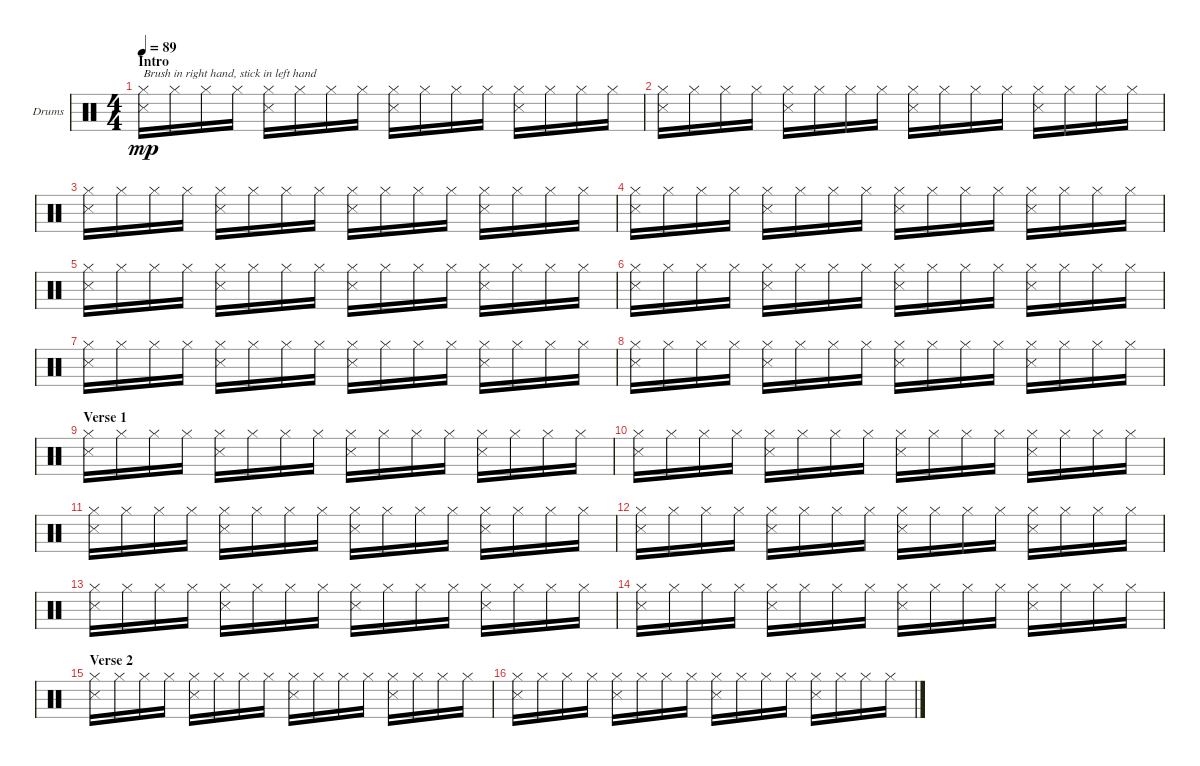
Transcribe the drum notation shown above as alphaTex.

\bracketExtendMode groupsimilarinstruments
\firstSystemTrackNameOrientation horizontal
\otherSystemsTrackNameOrientation horizontal
\track ("Drumkit" "Drums") {instrument percussion}
\staff {score}
\articulation defaults
\ts (4 4)
\section ("" "Intro")
\tempo 89
\clef neutral
\ks c
("Hi-Hat (closed)" "Snare (side stick) 3").16{txt "Brush in right hand, stick in left hand" dy mp} "Hi-Hat (closed)".16 "Hi-Hat (closed)".16 "Hi-Hat (closed)".16 ("Hi-Hat (closed)" "Snare (side stick) 3").16 "Hi-Hat (closed)".16 "Hi-Hat (closed)".16 "Hi-Hat (closed)".16 ("Hi-Hat (closed)" "Snare (side stick) 3").16 "Hi-Hat (closed)".16 "Hi-Hat (closed)".16 "Hi-Hat (closed)".16 ("Hi-Hat (closed)" "Snare (side stick) 3").16 "Hi-Hat (closed)".16 "Hi-Hat (closed)".16 "Hi-Hat (closed)".16 |
("Hi-Hat (closed)" "Snare (side stick) 3").16 "Hi-Hat (closed)".16 "Hi-Hat (closed)".16 "Hi-Hat (closed)".16 ("Hi-Hat (closed)" "Snare (side stick) 3").16 "Hi-Hat (closed)".16 "Hi-Hat (closed)".16 "Hi-Hat (closed)".16 ("Hi-Hat (closed)" "Snare (side stick) 3").16 "Hi-Hat (closed)".16 "Hi-Hat (closed)".16 "Hi-Hat (closed)".16 ("Hi-Hat (closed)" "Snare (side stick) 3").16 "Hi-Hat (closed)".16 "Hi-Hat (closed)".16 "Hi-Hat (closed)".16 |
("Hi-Hat (closed)" "Snare (side stick) 3").16 "Hi-Hat (closed)".16 "Hi-Hat (closed)".16 "Hi-Hat (closed)".16 ("Hi-Hat (closed)" "Snare (side stick) 3").16 "Hi-Hat (closed)".16 "Hi-Hat (closed)".16 "Hi-Hat (closed)".16 ("Hi-Hat (closed)" "Snare (side stick) 3").16 "Hi-Hat (closed)".16 "Hi-Hat (closed)".16 "Hi-Hat (closed)".16 ("Hi-Hat (closed)" "Snare (side stick) 3").16 "Hi-Hat (closed)".16 "Hi-Hat (closed)".16 "Hi-Hat (closed)".16 |
("Hi-Hat (closed)" "Snare (side stick) 3").16 "Hi-Hat (closed)".16 "Hi-Hat (closed)".16 "Hi-Hat (closed)".16 ("Hi-Hat (closed)" "Snare (side stick) 3").16 "Hi-Hat (closed)".16 "Hi-Hat (closed)".16 "Hi-Hat (closed)".16 ("Hi-Hat (closed)" "Snare (side stick) 3").16 "Hi-Hat (closed)".16 "Hi-Hat (closed)".16 "Hi-Hat (closed)".16 ("Hi-Hat (closed)" "Snare (side stick) 3").16 "Hi-Hat (closed)".16 "Hi-Hat (closed)".16 "Hi-Hat (closed)".16 |
("Hi-Hat (closed)" "Snare (side stick) 3").16 "Hi-Hat (closed)".16 "Hi-Hat (closed)".16 "Hi-Hat (closed)".16 ("Hi-Hat (closed)" "Snare (side stick) 3").16 "Hi-Hat (closed)".16 "Hi-Hat (closed)".16 "Hi-Hat (closed)".16 ("Hi-Hat (closed)" "Snare (side stick) 3").16 "Hi-Hat (closed)".16 "Hi-Hat (closed)".16 "Hi-Hat (closed)".16 ("Hi-Hat (closed)" "Snare (side stick) 3").16 "Hi-Hat (closed)".16 "Hi-Hat (closed)".16 "Hi-Hat (closed)".16 |
("Hi-Hat (closed)" "Snare (side stick) 3").16 "Hi-Hat (closed)".16 "Hi-Hat (closed)".16 "Hi-Hat (closed)".16 ("Hi-Hat (closed)" "Snare (side stick) 3").16 "Hi-Hat (closed)".16 "Hi-Hat (closed)".16 "Hi-Hat (closed)".16 ("Hi-Hat (closed)" "Snare (side stick) 3").16 "Hi-Hat (closed)".16 "Hi-Hat (closed)".16 "Hi-Hat (closed)".16 ("Hi-Hat (closed)" "Snare (side stick) 3").16 "Hi-Hat (closed)".16 "Hi-Hat (closed)".16 "Hi-Hat (closed)".16 |
("Hi-Hat (closed)" "Snare (side stick) 3").16 "Hi-Hat (closed)".16 "Hi-Hat (closed)".16 "Hi-Hat (closed)".16 ("Hi-Hat (closed)" "Snare (side stick) 3").16 "Hi-Hat (closed)".16 "Hi-Hat (closed)".16 "Hi-Hat (closed)".16 ("Hi-Hat (closed)" "Snare (side stick) 3").16 "Hi-Hat (closed)".16 "Hi-Hat (closed)".16 "Hi-Hat (closed)".16 ("Hi-Hat (closed)" "Snare (side stick) 3").16 "Hi-Hat (closed)".16 "Hi-Hat (closed)".16 "Hi-Hat (closed)".16 |
("Hi-Hat (closed)" "Snare (side stick) 3").16 "Hi-Hat (closed)".16 "Hi-Hat (closed)".16 "Hi-Hat (closed)".16 ("Hi-Hat (closed)" "Snare (side stick) 3").16 "Hi-Hat (closed)".16 "Hi-Hat (closed)".16 "Hi-Hat (closed)".16 ("Hi-Hat (closed)" "Snare (side stick) 3").16 "Hi-Hat (closed)".16 "Hi-Hat (closed)".16 "Hi-Hat (closed)".16 ("Hi-Hat (closed)" "Snare (side stick) 3").16 "Hi-Hat (closed)".16 "Hi-Hat (closed)".16 "Hi-Hat (closed)".16 |
\section ("" "Verse 1")
("Hi-Hat (closed)" "Snare (side stick) 3").16 "Hi-Hat (closed)".16 "Hi-Hat (closed)".16 "Hi-Hat (closed)".16 ("Hi-Hat (closed)" "Snare (side stick) 3").16 "Hi-Hat (closed)".16 "Hi-Hat (closed)".16 "Hi-Hat (closed)".16 ("Hi-Hat (closed)" "Snare (side stick) 3").16 "Hi-Hat (closed)".16 "Hi-Hat (closed)".16 "Hi-Hat (closed)".16 ("Hi-Hat (closed)" "Snare (side stick) 3").16 "Hi-Hat (closed)".16 "Hi-Hat (closed)".16 "Hi-Hat (closed)".16 |
("Hi-Hat (closed)" "Snare (side stick) 3").16 "Hi-Hat (closed)".16 "Hi-Hat (closed)".16 "Hi-Hat (closed)".16 ("Hi-Hat (closed)" "Snare (side stick) 3").16 "Hi-Hat (closed)".16 "Hi-Hat (closed)".16 "Hi-Hat (closed)".16 ("Hi-Hat (closed)" "Snare (side stick) 3").16 "Hi-Hat (closed)".16 "Hi-Hat (closed)".16 "Hi-Hat (closed)".16 ("Hi-Hat (closed)" "Snare (side stick) 3").16 "Hi-Hat (closed)".16 "Hi-Hat (closed)".16 "Hi-Hat (closed)".16 |
("Hi-Hat (closed)" "Snare (side stick) 3").16 "Hi-Hat (closed)".16 "Hi-Hat (closed)".16 "Hi-Hat (closed)".16 ("Hi-Hat (closed)" "Snare (side stick) 3").16 "Hi-Hat (closed)".16 "Hi-Hat (closed)".16 "Hi-Hat (closed)".16 ("Hi-Hat (closed)" "Snare (side stick) 3").16 "Hi-Hat (closed)".16 "Hi-Hat (closed)".16 "Hi-Hat (closed)".16 ("Hi-Hat (closed)" "Snare (side stick) 3").16 "Hi-Hat (closed)".16 "Hi-Hat (closed)".16 "Hi-Hat (closed)".16 |
("Hi-Hat (closed)" "Snare (side stick) 3").16 "Hi-Hat (closed)".16 "Hi-Hat (closed)".16 "Hi-Hat (closed)".16 ("Hi-Hat (closed)" "Snare (side stick) 3").16 "Hi-Hat (closed)".16 "Hi-Hat (closed)".16 "Hi-Hat (closed)".16 ("Hi-Hat (closed)" "Snare (side stick) 3").16 "Hi-Hat (closed)".16 "Hi-Hat (closed)".16 "Hi-Hat (closed)".16 ("Hi-Hat (closed)" "Snare (side stick) 3").16 "Hi-Hat (closed)".16 "Hi-Hat (closed)".16 "Hi-Hat (closed)".16 |
("Hi-Hat (closed)" "Snare (side stick) 3").16 "Hi-Hat (closed)".16 "Hi-Hat (closed)".16 "Hi-Hat (closed)".16 ("Hi-Hat (closed)" "Snare (side stick) 3").16 "Hi-Hat (closed)".16 "Hi-Hat (closed)".16 "Hi-Hat (closed)".16 ("Hi-Hat (closed)" "Snare (side stick) 3").16 "Hi-Hat (closed)".16 "Hi-Hat (closed)".16 "Hi-Hat (closed)".16 ("Hi-Hat (closed)" "Snare (side stick) 3").16 "Hi-Hat (closed)".16 "Hi-Hat (closed)".16 "Hi-Hat (closed)".16 |
("Hi-Hat (closed)" "Snare (side stick) 3").16 "Hi-Hat (closed)".16 "Hi-Hat (closed)".16 "Hi-Hat (closed)".16 ("Hi-Hat (closed)" "Snare (side stick) 3").16 "Hi-Hat (closed)".16 "Hi-Hat (closed)".16 "Hi-Hat (closed)".16 ("Hi-Hat (closed)" "Snare (side stick) 3").16 "Hi-Hat (closed)".16 "Hi-Hat (closed)".16 "Hi-Hat (closed)".16 ("Hi-Hat (closed)" "Snare (side stick) 3").16 "Hi-Hat (closed)".16 "Hi-Hat (closed)".16 "Hi-Hat (closed)".16 |
\section ("" "Verse 2")
("Hi-Hat (closed)" "Snare (side stick) 3").16 "Hi-Hat (closed)".16 "Hi-Hat (closed)".16 "Hi-Hat (closed)".16 ("Hi-Hat (closed)" "Snare (side stick) 3").16 "Hi-Hat (closed)".16 "Hi-Hat (closed)".16 "Hi-Hat (closed)".16 ("Hi-Hat (closed)" "Snare (side stick) 3").16 "Hi-Hat (closed)".16 "Hi-Hat (closed)".16 "Hi-Hat (closed)".16 ("Hi-Hat (closed)" "Snare (side stick) 3").16 "Hi-Hat (closed)".16 "Hi-Hat (closed)".16 "Hi-Hat (closed)".16 |
("Hi-Hat (closed)" "Snare (side stick) 3").16 "Hi-Hat (closed)".16 "Hi-Hat (closed)".16 "Hi-Hat (closed)".16 ("Hi-Hat (closed)" "Snare (side stick) 3").16 "Hi-Hat (closed)".16 "Hi-Hat (closed)".16 "Hi-Hat (closed)".16 ("Hi-Hat (closed)" "Snare (side stick) 3").16 "Hi-Hat (closed)".16 "Hi-Hat (closed)".16 "Hi-Hat (closed)".16 ("Hi-Hat (closed)" "Snare (side stick) 3").16 "Hi-Hat (closed)".16 "Hi-Hat (closed)".16 "Hi-Hat (closed)".16
